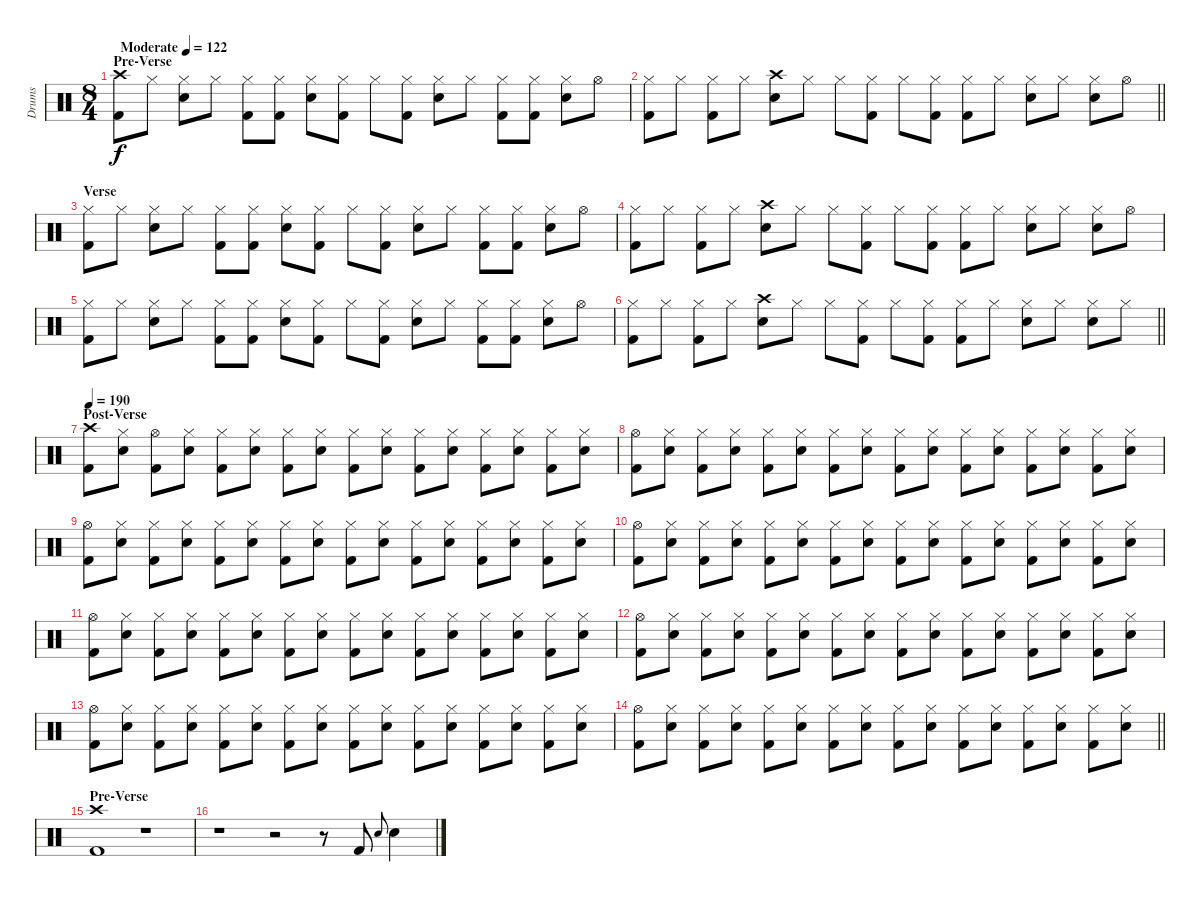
\track ("Drums" "Drums") {instrument percussion}
\staff {score}
\articulation defaults
\ts (8 4)
\section ("" "Pre-Verse")
\tempo (122 "Moderate")
\clef neutral
\ks c
("Crash high (hit)" "Kick (hit) 2").8{dy f} "Hi-Hat (closed)".8 ("Hi-Hat (closed)" "Snare (hit) 2").8 "Hi-Hat (closed)".8 ("Hi-Hat (closed)" "Kick (hit) 2").8 ("Hi-Hat (closed)" "Kick (hit) 2").8 ("Hi-Hat (closed)" "Snare (hit) 2").8 ("Hi-Hat (closed)" "Kick (hit) 2").8 "Hi-Hat (closed)".8 ("Hi-Hat (closed)" "Kick (hit) 2").8 ("Hi-Hat (closed)" "Snare (hit) 2").8 "Hi-Hat (closed)".8 ("Hi-Hat (closed)" "Kick (hit) 2").8 ("Hi-Hat (closed)" "Kick (hit) 2").8 ("Hi-Hat (closed)" "Snare (hit) 2").8 "Hi-Hat (open)".8 |
\barLineRight lightlight
("Hi-Hat (closed)" "Kick (hit) 2").8 "Hi-Hat (closed)".8 ("Hi-Hat (closed)" "Kick (hit) 2").8 "Hi-Hat (closed)".8 ("Crash high (hit)" "Snare (hit) 2").8 "Hi-Hat (closed)".8 "Hi-Hat (closed)".8 ("Hi-Hat (closed)" "Kick (hit) 2").8 "Hi-Hat (closed)".8 ("Hi-Hat (closed)" "Kick (hit) 2").8 ("Hi-Hat (closed)" "Kick (hit) 2").8 "Hi-Hat (closed)".8 ("Hi-Hat (closed)" "Snare (hit) 2").8 "Hi-Hat (closed)".8 ("Hi-Hat (closed)" "Snare (hit) 2").8 "Hi-Hat (open)".8 |
\section ("" "Verse")
("Hi-Hat (closed)" "Kick (hit) 2").8 "Hi-Hat (closed)".8 ("Hi-Hat (closed)" "Snare (hit) 2").8 "Hi-Hat (closed)".8 ("Hi-Hat (closed)" "Kick (hit) 2").8 ("Hi-Hat (closed)" "Kick (hit) 2").8 ("Hi-Hat (closed)" "Snare (hit) 2").8 ("Hi-Hat (closed)" "Kick (hit) 2").8 "Hi-Hat (closed)".8 ("Hi-Hat (closed)" "Kick (hit) 2").8 ("Hi-Hat (closed)" "Snare (hit) 2").8 "Hi-Hat (closed)".8 ("Hi-Hat (closed)" "Kick (hit) 2").8 ("Hi-Hat (closed)" "Kick (hit) 2").8 ("Hi-Hat (closed)" "Snare (hit) 2").8 "Hi-Hat (open)".8 |
("Hi-Hat (closed)" "Kick (hit) 2").8 "Hi-Hat (closed)".8 ("Hi-Hat (closed)" "Kick (hit) 2").8 "Hi-Hat (closed)".8 ("Crash high (hit)" "Snare (hit) 2").8 "Hi-Hat (closed)".8 "Hi-Hat (closed)".8 ("Hi-Hat (closed)" "Kick (hit) 2").8 "Hi-Hat (closed)".8 ("Hi-Hat (closed)" "Kick (hit) 2").8 ("Hi-Hat (closed)" "Kick (hit) 2").8 "Hi-Hat (closed)".8 ("Hi-Hat (closed)" "Snare (hit) 2").8 "Hi-Hat (closed)".8 ("Hi-Hat (closed)" "Snare (hit) 2").8 "Hi-Hat (open)".8 |
("Hi-Hat (closed)" "Kick (hit) 2").8 "Hi-Hat (closed)".8 ("Hi-Hat (closed)" "Snare (hit) 2").8 "Hi-Hat (closed)".8 ("Hi-Hat (closed)" "Kick (hit) 2").8 ("Hi-Hat (closed)" "Kick (hit) 2").8 ("Hi-Hat (closed)" "Snare (hit) 2").8 ("Hi-Hat (closed)" "Kick (hit) 2").8 "Hi-Hat (closed)".8 ("Hi-Hat (closed)" "Kick (hit) 2").8 ("Hi-Hat (closed)" "Snare (hit) 2").8 "Hi-Hat (closed)".8 ("Hi-Hat (closed)" "Kick (hit) 2").8 ("Hi-Hat (closed)" "Kick (hit) 2").8 ("Hi-Hat (closed)" "Snare (hit) 2").8 "Hi-Hat (open)".8 |
\barLineRight lightlight
("Hi-Hat (closed)" "Kick (hit) 2").8 "Hi-Hat (closed)".8 ("Hi-Hat (closed)" "Kick (hit) 2").8 "Hi-Hat (closed)".8 ("Crash high (hit)" "Snare (hit) 2").8 "Hi-Hat (closed)".8 "Hi-Hat (closed)".8 ("Hi-Hat (closed)" "Kick (hit) 2").8 "Hi-Hat (closed)".8 ("Hi-Hat (closed)" "Kick (hit) 2").8 ("Hi-Hat (closed)" "Kick (hit) 2").8 "Hi-Hat (closed)".8 ("Hi-Hat (closed)" "Snare (hit) 2").8 "Hi-Hat (closed)".8 ("Hi-Hat (closed)" "Snare (hit) 2").8 "Hi-Hat (closed)".8 |
\section ("" "Post-Verse")
\tempo 190
("Crash high (hit)" "Kick (hit) 2").8 ("Hi-Hat (closed)" "Snare (hit) 2").8 ("Hi-Hat (open)" "Kick (hit) 2").8 ("Hi-Hat (closed)" "Snare (hit) 2").8 ("Hi-Hat (closed)" "Kick (hit) 2").8 ("Hi-Hat (closed)" "Snare (hit) 2").8 ("Hi-Hat (closed)" "Kick (hit) 2").8 ("Hi-Hat (closed)" "Snare (hit) 2").8 ("Hi-Hat (closed)" "Kick (hit) 2").8 ("Hi-Hat (closed)" "Snare (hit) 2").8 ("Hi-Hat (closed)" "Kick (hit) 2").8 ("Hi-Hat (closed)" "Snare (hit) 2").8 ("Hi-Hat (closed)" "Kick (hit) 2").8 ("Hi-Hat (closed)" "Snare (hit) 2").8 ("Hi-Hat (closed)" "Kick (hit) 2").8 ("Hi-Hat (closed)" "Snare (hit) 2").8 |
("Hi-Hat (open)" "Kick (hit) 2").8 ("Hi-Hat (closed)" "Snare (hit) 2").8 ("Hi-Hat (closed)" "Kick (hit) 2").8 ("Hi-Hat (closed)" "Snare (hit) 2").8 ("Hi-Hat (closed)" "Kick (hit) 2").8 ("Hi-Hat (closed)" "Snare (hit) 2").8 ("Hi-Hat (closed)" "Kick (hit) 2").8 ("Hi-Hat (closed)" "Snare (hit) 2").8 ("Hi-Hat (closed)" "Kick (hit) 2").8 ("Hi-Hat (closed)" "Snare (hit) 2").8 ("Hi-Hat (closed)" "Kick (hit) 2").8 ("Hi-Hat (closed)" "Snare (hit) 2").8 ("Hi-Hat (closed)" "Kick (hit) 2").8 ("Hi-Hat (closed)" "Snare (hit) 2").8 ("Hi-Hat (closed)" "Kick (hit) 2").8 ("Hi-Hat (closed)" "Snare (hit) 2").8 |
("Hi-Hat (open)" "Kick (hit) 2").8 ("Hi-Hat (closed)" "Snare (hit) 2").8 ("Hi-Hat (closed)" "Kick (hit) 2").8 ("Hi-Hat (closed)" "Snare (hit) 2").8 ("Hi-Hat (closed)" "Kick (hit) 2").8 ("Hi-Hat (closed)" "Snare (hit) 2").8 ("Hi-Hat (closed)" "Kick (hit) 2").8 ("Hi-Hat (closed)" "Snare (hit) 2").8 ("Hi-Hat (closed)" "Kick (hit) 2").8 ("Hi-Hat (closed)" "Snare (hit) 2").8 ("Hi-Hat (closed)" "Kick (hit) 2").8 ("Hi-Hat (closed)" "Snare (hit) 2").8 ("Hi-Hat (closed)" "Kick (hit) 2").8 ("Hi-Hat (closed)" "Snare (hit) 2").8 ("Hi-Hat (closed)" "Kick (hit) 2").8 ("Hi-Hat (closed)" "Snare (hit) 2").8 |
("Hi-Hat (open)" "Kick (hit) 2").8 ("Hi-Hat (closed)" "Snare (hit) 2").8 ("Hi-Hat (closed)" "Kick (hit) 2").8 ("Hi-Hat (closed)" "Snare (hit) 2").8 ("Hi-Hat (closed)" "Kick (hit) 2").8 ("Hi-Hat (closed)" "Snare (hit) 2").8 ("Hi-Hat (closed)" "Kick (hit) 2").8 ("Hi-Hat (closed)" "Snare (hit) 2").8 ("Hi-Hat (closed)" "Kick (hit) 2").8 ("Hi-Hat (closed)" "Snare (hit) 2").8 ("Hi-Hat (closed)" "Kick (hit) 2").8 ("Hi-Hat (closed)" "Snare (hit) 2").8 ("Hi-Hat (closed)" "Kick (hit) 2").8 ("Hi-Hat (closed)" "Snare (hit) 2").8 ("Hi-Hat (closed)" "Kick (hit) 2").8 ("Hi-Hat (closed)" "Snare (hit) 2").8 |
("Hi-Hat (open)" "Kick (hit) 2").8 ("Hi-Hat (closed)" "Snare (hit) 2").8 ("Hi-Hat (closed)" "Kick (hit) 2").8 ("Hi-Hat (closed)" "Snare (hit) 2").8 ("Hi-Hat (closed)" "Kick (hit) 2").8 ("Hi-Hat (closed)" "Snare (hit) 2").8 ("Hi-Hat (closed)" "Kick (hit) 2").8 ("Hi-Hat (closed)" "Snare (hit) 2").8 ("Hi-Hat (closed)" "Kick (hit) 2").8 ("Hi-Hat (closed)" "Snare (hit) 2").8 ("Hi-Hat (closed)" "Kick (hit) 2").8 ("Hi-Hat (closed)" "Snare (hit) 2").8 ("Hi-Hat (closed)" "Kick (hit) 2").8 ("Hi-Hat (closed)" "Snare (hit) 2").8 ("Hi-Hat (closed)" "Kick (hit) 2").8 ("Hi-Hat (closed)" "Snare (hit) 2").8 |
("Hi-Hat (open)" "Kick (hit) 2").8 ("Hi-Hat (closed)" "Snare (hit) 2").8 ("Hi-Hat (closed)" "Kick (hit) 2").8 ("Hi-Hat (closed)" "Snare (hit) 2").8 ("Hi-Hat (closed)" "Kick (hit) 2").8 ("Hi-Hat (closed)" "Snare (hit) 2").8 ("Hi-Hat (closed)" "Kick (hit) 2").8 ("Hi-Hat (closed)" "Snare (hit) 2").8 ("Hi-Hat (closed)" "Kick (hit) 2").8 ("Hi-Hat (closed)" "Snare (hit) 2").8 ("Hi-Hat (closed)" "Kick (hit) 2").8 ("Hi-Hat (closed)" "Snare (hit) 2").8 ("Hi-Hat (closed)" "Kick (hit) 2").8 ("Hi-Hat (closed)" "Snare (hit) 2").8 ("Hi-Hat (closed)" "Kick (hit) 2").8 ("Hi-Hat (closed)" "Snare (hit) 2").8 |
("Hi-Hat (open)" "Kick (hit) 2").8 ("Hi-Hat (closed)" "Snare (hit) 2").8 ("Hi-Hat (closed)" "Kick (hit) 2").8 ("Hi-Hat (closed)" "Snare (hit) 2").8 ("Hi-Hat (closed)" "Kick (hit) 2").8 ("Hi-Hat (closed)" "Snare (hit) 2").8 ("Hi-Hat (closed)" "Kick (hit) 2").8 ("Hi-Hat (closed)" "Snare (hit) 2").8 ("Hi-Hat (closed)" "Kick (hit) 2").8 ("Hi-Hat (closed)" "Snare (hit) 2").8 ("Hi-Hat (closed)" "Kick (hit) 2").8 ("Hi-Hat (closed)" "Snare (hit) 2").8 ("Hi-Hat (closed)" "Kick (hit) 2").8 ("Hi-Hat (closed)" "Snare (hit) 2").8 ("Hi-Hat (closed)" "Kick (hit) 2").8 ("Hi-Hat (closed)" "Snare (hit) 2").8 |
\barLineRight lightlight
("Hi-Hat (open)" "Kick (hit) 2").8 ("Hi-Hat (closed)" "Snare (hit) 2").8 ("Hi-Hat (closed)" "Kick (hit) 2").8 ("Hi-Hat (closed)" "Snare (hit) 2").8 ("Hi-Hat (closed)" "Kick (hit) 2").8 ("Hi-Hat (closed)" "Snare (hit) 2").8 ("Hi-Hat (closed)" "Kick (hit) 2").8 ("Hi-Hat (closed)" "Snare (hit) 2").8 ("Hi-Hat (closed)" "Kick (hit) 2").8 ("Hi-Hat (closed)" "Snare (hit) 2").8 ("Hi-Hat (closed)" "Kick (hit) 2").8 ("Hi-Hat (closed)" "Snare (hit) 2").8 ("Hi-Hat (closed)" "Kick (hit) 2").8 ("Hi-Hat (closed)" "Snare (hit) 2").8 ("Hi-Hat (closed)" "Kick (hit) 2").8 ("Hi-Hat (closed)" "Snare (hit) 2").8 |
\section ("" "Pre-Verse")
("Crash high (hit)" "Kick (hit) 2").1 r.1 |
r.1 r.2 r.8 "Kick (hit) 2".8 "Snare (hit) 2".8{gr onbeat} "Snare (hit) 2".4
